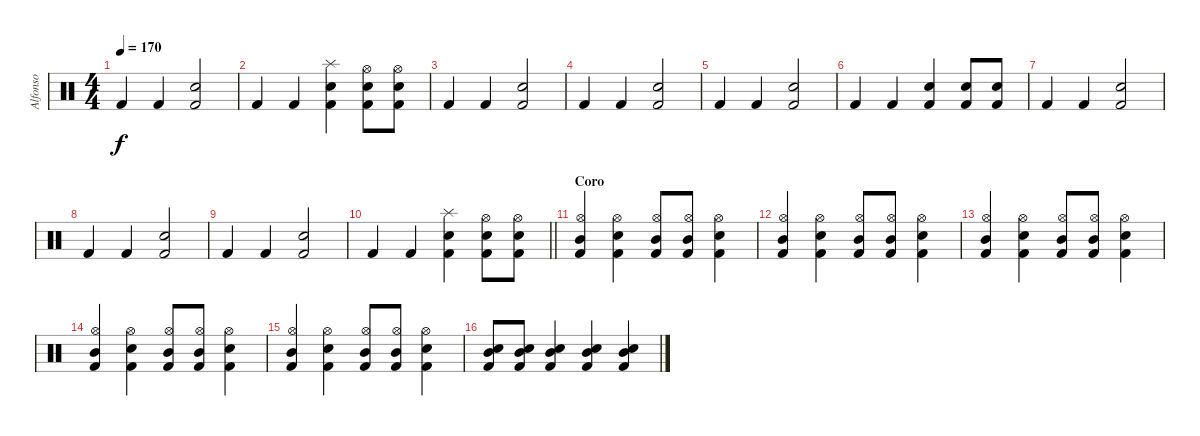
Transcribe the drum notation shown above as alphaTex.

\track ("Alfonso" "Alfonso") {instrument percussion}
\staff {score}
\articulation defaults
\ts (4 4)
\tempo 170
\clef neutral
\ks c "Kick (hit) 2".4{dy f} "Kick (hit) 2".4
("Kick (hit) 2" "Snare (hit) 2").2 |
"Kick (hit) 2".4 "Kick (hit) 2".4 ("Kick (hit) 2" "Snare (hit) 2" "Splash (hit)").4 ("Kick (hit) 2" "Snare (hit) 2" "Hi-Hat (open)").8 ("Kick (hit) 2" "Snare (hit) 2" "Hi-Hat (open)").8 |
"Kick (hit) 2".4 "Kick (hit) 2".4 ("Kick (hit) 2" "Snare (hit) 2").2 |
"Kick (hit) 2".4 "Kick (hit) 2".4 ("Kick (hit) 2" "Snare (hit) 2").2 |
"Kick (hit) 2".4 "Kick (hit) 2".4 ("Kick (hit) 2" "Snare (hit) 2").2 |
"Kick (hit) 2".4 "Kick (hit) 2".4 ("Kick (hit) 2" "Snare (hit) 2").4 ("Kick (hit) 2" "Snare (hit) 2").8 ("Kick (hit) 2" "Snare (hit) 2").8 |
"Kick (hit) 2".4 "Kick (hit) 2".4 ("Kick (hit) 2" "Snare (hit) 2").2 |
"Kick (hit) 2".4 "Kick (hit) 2".4 ("Kick (hit) 2" "Snare (hit) 2").2 |
"Kick (hit) 2".4 "Kick (hit) 2".4 ("Kick (hit) 2" "Snare (hit) 2").2 |
\barLineRight lightlight "Kick (hit) 2".4 "Kick (hit) 2".4
("Kick (hit) 2" "Snare (hit) 2" "Splash (hit)").4 ("Kick (hit) 2" "Snare (hit) 2" "Hi-Hat (open)").8 ("Kick (hit) 2" "Snare (hit) 2" "Hi-Hat (open)").8 |
\section ("" "Coro")
("Kick (hit) 2" "Mid Tom (hit)" "Hi-Hat (open)").4 ("Kick (hit) 2" "Snare (hit) 2" "Hi-Hat (open)").4 ("Kick (hit) 2" "Mid Tom (hit)" "Hi-Hat (open)").8 ("Kick (hit) 2" "Mid Tom (hit)" "Hi-Hat (open)").8 ("Kick (hit) 2" "Snare (hit) 2" "Hi-Hat (open)").4 |
("Kick (hit) 2" "Mid Tom (hit)" "Hi-Hat (open)").4 ("Kick (hit) 2" "Snare (hit) 2" "Hi-Hat (open)").4 ("Kick (hit) 2" "Mid Tom (hit)" "Hi-Hat (open)").8 ("Kick (hit) 2" "Mid Tom (hit)" "Hi-Hat (open)").8 ("Kick (hit) 2" "Snare (hit) 2" "Hi-Hat (open)").4 |
("Kick (hit) 2" "Mid Tom (hit)" "Hi-Hat (open)").4 ("Kick (hit) 2" "Snare (hit) 2" "Hi-Hat (open)").4 ("Kick (hit) 2" "Mid Tom (hit)" "Hi-Hat (open)").8 ("Kick (hit) 2" "Mid Tom (hit)" "Hi-Hat (open)").8 ("Kick (hit) 2" "Snare (hit) 2" "Hi-Hat (open)").4 |
("Kick (hit) 2" "Mid Tom (hit)" "Hi-Hat (open)").4 ("Kick (hit) 2" "Snare (hit) 2" "Hi-Hat (open)").4 ("Kick (hit) 2" "Mid Tom (hit)" "Hi-Hat (open)").8 ("Kick (hit) 2" "Mid Tom (hit)" "Hi-Hat (open)").8 ("Kick (hit) 2" "Snare (hit) 2" "Hi-Hat (open)").4 |
("Kick (hit) 2" "Mid Tom (hit)" "Hi-Hat (open)").4 ("Kick (hit) 2" "Snare (hit) 2" "Hi-Hat (open)").4 ("Kick (hit) 2" "Mid Tom (hit)" "Hi-Hat (open)").8 ("Kick (hit) 2" "Mid Tom (hit)" "Hi-Hat (open)").8 ("Kick (hit) 2" "Snare (hit) 2" "Hi-Hat (open)").4 |
("Kick (hit) 2" "Snare (hit) 2" "Mid Tom (hit)").8 ("Kick (hit) 2" "Snare (hit) 2" "Mid Tom (hit)").8 ("Kick (hit) 2" "Snare (hit) 2" "Mid Tom (hit)").4 ("Kick (hit) 2" "Snare (hit) 2" "Mid Tom (hit)").4 ("Kick (hit) 2" "Snare (hit) 2" "Mid Tom (hit)").4
